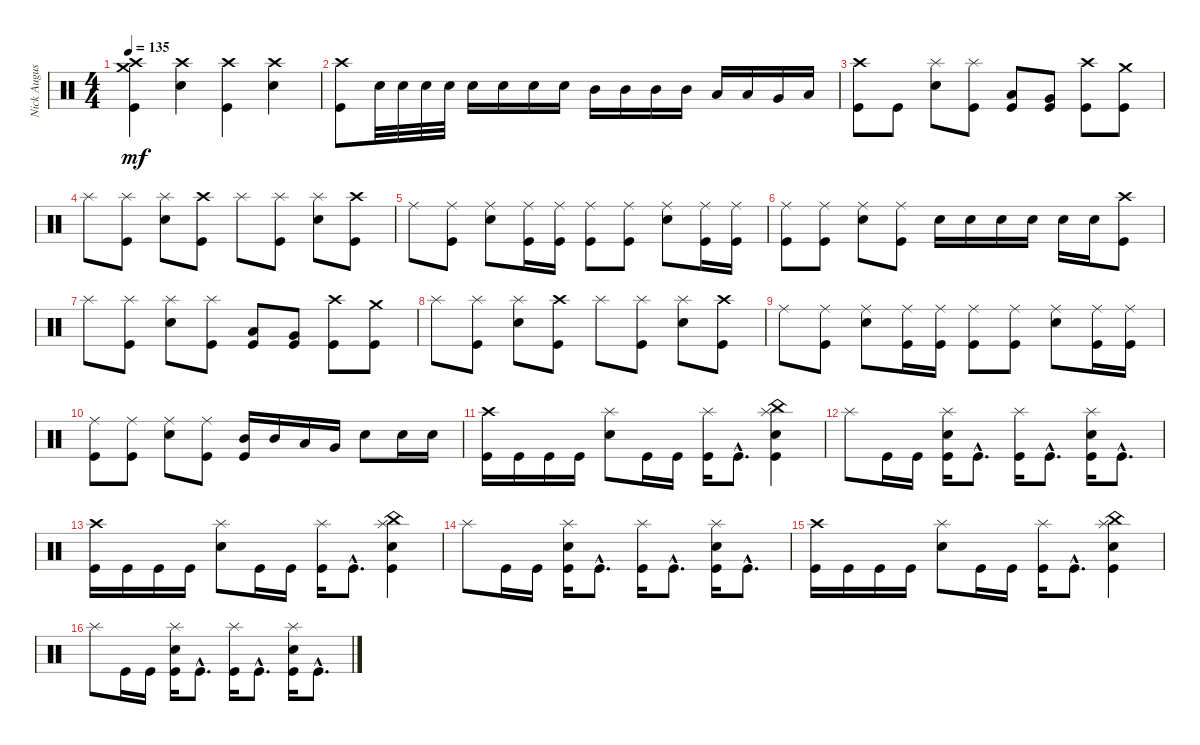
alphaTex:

\track ("Nick Augusto" "Nick Augus") {instrument percussion}
\staff {score}
\articulation defaults
\ts (4 4)
\tempo 135
\clef neutral
\ks c
("Kick (hit)" "Crash high (hit)" "Crash medium (hit)").4{dy mf} ("Snare (hit) 2" "Crash high (hit)").4 ("Kick (hit)" "Crash high (hit)").4 ("Snare (hit) 2" "Crash high (hit)").4 |
("Kick (hit)" "Crash high (hit)").8 "Snare (hit) 2".32 "Snare (hit) 2".32 "Snare (hit) 2".32 "Snare (hit) 2".32 "Snare (hit) 2".16 "Snare (hit) 2".16 "Snare (hit) 2".16 "Snare (hit) 2".16 "Mid Tom (hit)".16 "Mid Tom (hit)".16 "Mid Tom (hit)".16 "Mid Tom (hit)".16 "Low Tom (hit)".16 "Low Tom (hit)".16 "Very Low Tom (hit)".16 "Low Floor Tom (hit)".16 |
("Kick (hit)" "Crash high (hit)").8 "Kick (hit)".8 ("Snare (hit) 2" "Splash (hit)").8 ("Kick (hit)" "Splash (hit)").8 ("Kick (hit)" "Low Tom (hit)").8 ("Kick (hit)" "Very Low Tom (hit)").8 ("Kick (hit)" "Crash high (hit)").8 ("Kick (hit)" "Crash medium (hit)").8 |
"Splash (hit)".8 ("Kick (hit)" "Splash (hit)").8 ("Snare (hit) 2" "Splash (hit)").8 ("Kick (hit)" "Crash high (hit)").8 "Splash (hit)".8 ("Kick (hit)" "Splash (hit)").8 ("Snare (hit) 2" "Splash (hit)").8 ("Kick (hit)" "Crash high (hit)").8 |
"Ride (middle)".8 ("Kick (hit)" "Ride (middle)").8 ("Snare (hit) 2" "Ride (middle)").8 ("Kick (hit)" "Ride (middle)").16 ("Kick (hit)" "Ride (middle)").16 ("Kick (hit)" "Ride (middle)").8 ("Kick (hit)" "Ride (middle)").8 ("Snare (hit) 2" "Ride (middle)").8 ("Kick (hit)" "Ride (middle)").16 ("Kick (hit)" "Ride (middle)").16 |
("Kick (hit)" "Ride (middle)").8 ("Kick (hit)" "Ride (middle)").8 ("Snare (hit) 2" "Ride (middle)").8 ("Kick (hit)" "Ride (middle)").8 "Snare (hit) 2".16 "Snare (hit) 2".16 "Snare (hit) 2".16 "Snare (hit) 2".16 "Snare (hit) 2".16 "Snare (hit) 2".16 ("Kick (hit)" "Crash high (hit)").8 |
"Splash (hit)".8 ("Kick (hit)" "Splash (hit)").8 ("Snare (hit) 2" "Splash (hit)").8 ("Kick (hit)" "Splash (hit)").8 ("Kick (hit)" "Low Tom (hit)").8 ("Kick (hit)" "Very Low Tom (hit)").8 ("Kick (hit)" "Crash high (hit)").8 ("Kick (hit)" "Crash medium (hit)").8 |
"Splash (hit)".8 ("Kick (hit)" "Splash (hit)").8 ("Snare (hit) 2" "Splash (hit)").8 ("Kick (hit)" "Crash high (hit)").8 "Splash (hit)".8 ("Kick (hit)" "Splash (hit)").8 ("Snare (hit) 2" "Splash (hit)").8 ("Kick (hit)" "Crash high (hit)").8 |
"Ride (middle)".8 ("Kick (hit)" "Ride (middle)").8 ("Snare (hit) 2" "Ride (middle)").8 ("Kick (hit)" "Ride (middle)").16 ("Kick (hit)" "Ride (middle)").16 ("Kick (hit)" "Ride (middle)").8 ("Kick (hit)" "Ride (middle)").8 ("Snare (hit) 2" "Ride (middle)").8 ("Kick (hit)" "Ride (middle)").16 ("Kick (hit)" "Ride (middle)").16 |
("Kick (hit)" "Ride (middle)").8 ("Kick (hit)" "Ride (middle)").8 ("Snare (hit) 2" "Ride (middle)").8 ("Kick (hit)" "Ride (middle)").8 ("Kick (hit)" "Mid Tom (hit)").16 "Mid Tom (hit)".16 "Low Tom (hit)".16 "Very Low Tom (hit)".16 "Snare (hit) 2".8 "Snare (hit) 2".16 "Snare (hit) 2".16 |
("Kick (hit)" "Crash high (hit)").16 "Kick (hit)".16 "Kick (hit)".16 "Kick (hit)".16 ("Snare (hit) 2" "Splash (hit)").8 "Kick (hit)".16 "Kick (hit)".16 ("Kick (hit)" "Splash (hit)").16 "Kick (hit)"{hac}.8{d} ("Kick (hit)" "Snare (hit) 2" "China (hit)" "Splash (hit)").4 |
"Splash (hit)".8 "Kick (hit)".16 "Kick (hit)".16 ("Kick (hit)" "Snare (hit) 2" "Splash (hit)").16 "Kick (hit)"{hac}.8{d} ("Kick (hit)" "Splash (hit)").16 "Kick (hit)"{hac}.8{d} ("Kick (hit)" "Snare (hit) 2" "Splash (hit)").16 "Kick (hit)"{hac}.8{d} |
("Kick (hit)" "Crash high (hit)").16 "Kick (hit)".16 "Kick (hit)".16 "Kick (hit)".16 ("Snare (hit) 2" "Splash (hit)").8 "Kick (hit)".16 "Kick (hit)".16 ("Kick (hit)" "Splash (hit)").16 "Kick (hit)"{hac}.8{d} ("Kick (hit)" "Snare (hit) 2" "China (hit)" "Splash (hit)").4 |
"Splash (hit)".8 "Kick (hit)".16 "Kick (hit)".16 ("Kick (hit)" "Snare (hit) 2" "Splash (hit)").16 "Kick (hit)"{hac}.8{d} ("Kick (hit)" "Splash (hit)").16 "Kick (hit)"{hac}.8{d} ("Kick (hit)" "Snare (hit) 2" "Splash (hit)").16 "Kick (hit)"{hac}.8{d} |
("Kick (hit)" "Crash high (hit)").16 "Kick (hit)".16 "Kick (hit)".16 "Kick (hit)".16 ("Snare (hit) 2" "Splash (hit)").8 "Kick (hit)".16 "Kick (hit)".16 ("Kick (hit)" "Splash (hit)").16 "Kick (hit)"{hac}.8{d} ("Kick (hit)" "Snare (hit) 2" "China (hit)" "Splash (hit)").4 |
"Splash (hit)".8 "Kick (hit)".16 "Kick (hit)".16 ("Kick (hit)" "Snare (hit) 2" "Splash (hit)").16 "Kick (hit)"{hac}.8{d} ("Kick (hit)" "Splash (hit)").16 "Kick (hit)"{hac}.8{d} ("Kick (hit)" "Snare (hit) 2" "Splash (hit)").16 "Kick (hit)"{hac}.8{d}
